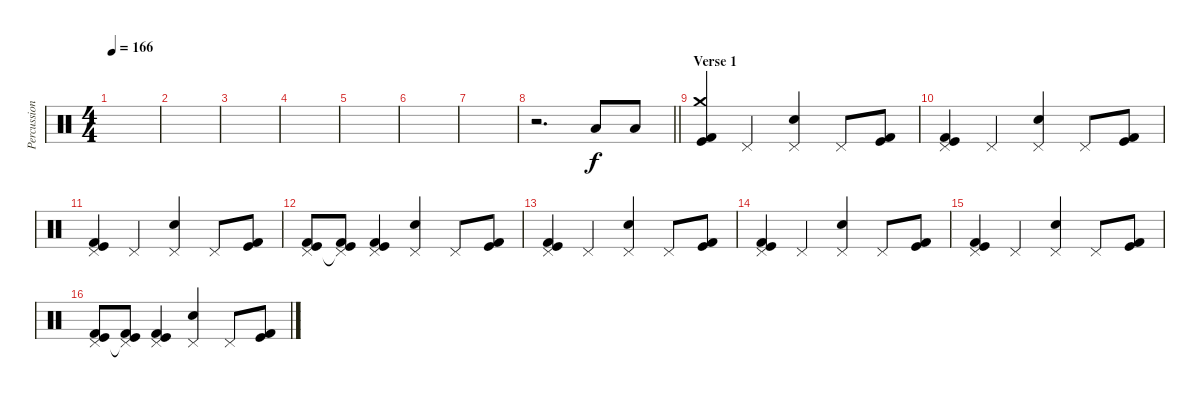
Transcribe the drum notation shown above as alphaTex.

\track ("Percussion" "Percussion") {instrument percussion}
\staff {score}
\articulation defaults
\ts (4 4)
\tempo 166
\clef neutral
\ks c
|
|
|
|
|
|
|
\barLineRight lightlight
r.2{d} "Low Tom (hit)".8 "Low Tom (hit)".8 |
\section ("" "Verse 1")
("Kick (hit) 2" "Crash medium (hit)" "Kick (hit)").4 "Pedal Hi-Hat (hit)".4 ("Electric Snare (hit)" "Pedal Hi-Hat (hit)").4 "Pedal Hi-Hat (hit)".8 ("Kick (hit) 2" "Kick (hit)").8 |
("Kick (hit) 2" "Pedal Hi-Hat (hit)" "Kick (hit)").4 "Pedal Hi-Hat (hit)".4 ("Electric Snare (hit)" "Pedal Hi-Hat (hit)").4 "Pedal Hi-Hat (hit)".8 ("Kick (hit) 2" "Kick (hit)").8 |
("Kick (hit) 2" "Pedal Hi-Hat (hit)" "Kick (hit)").4 "Pedal Hi-Hat (hit)".4 ("Electric Snare (hit)" "Pedal Hi-Hat (hit)").4 "Pedal Hi-Hat (hit)".8 ("Kick (hit) 2" "Kick (hit)").8 |
("Kick (hit) 2" "Pedal Hi-Hat (hit)" "Kick (hit)").8 ("Kick (hit) 2" "Pedal Hi-Hat (hit)"{t} "Kick (hit)").8 ("Kick (hit) 2" "Pedal Hi-Hat (hit)" "Kick (hit)").4 ("Electric Snare (hit)" "Pedal Hi-Hat (hit)").4 "Pedal Hi-Hat (hit)".8 ("Kick (hit) 2" "Kick (hit)").8 |
("Kick (hit) 2" "Pedal Hi-Hat (hit)" "Kick (hit)").4 "Pedal Hi-Hat (hit)".4 ("Electric Snare (hit)" "Pedal Hi-Hat (hit)").4 "Pedal Hi-Hat (hit)".8 ("Kick (hit) 2" "Kick (hit)").8 |
("Kick (hit) 2" "Pedal Hi-Hat (hit)" "Kick (hit)").4 "Pedal Hi-Hat (hit)".4 ("Electric Snare (hit)" "Pedal Hi-Hat (hit)").4 "Pedal Hi-Hat (hit)".8 ("Kick (hit) 2" "Kick (hit)").8 |
("Kick (hit) 2" "Pedal Hi-Hat (hit)" "Kick (hit)").4 "Pedal Hi-Hat (hit)".4 ("Electric Snare (hit)" "Pedal Hi-Hat (hit)").4 "Pedal Hi-Hat (hit)".8 ("Kick (hit) 2" "Kick (hit)").8 |
("Kick (hit) 2" "Pedal Hi-Hat (hit)" "Kick (hit)").8 ("Kick (hit) 2" "Pedal Hi-Hat (hit)"{t} "Kick (hit)").8 ("Kick (hit) 2" "Pedal Hi-Hat (hit)" "Kick (hit)").4 ("Electric Snare (hit)" "Pedal Hi-Hat (hit)").4 "Pedal Hi-Hat (hit)".8 ("Kick (hit) 2" "Kick (hit)").8
